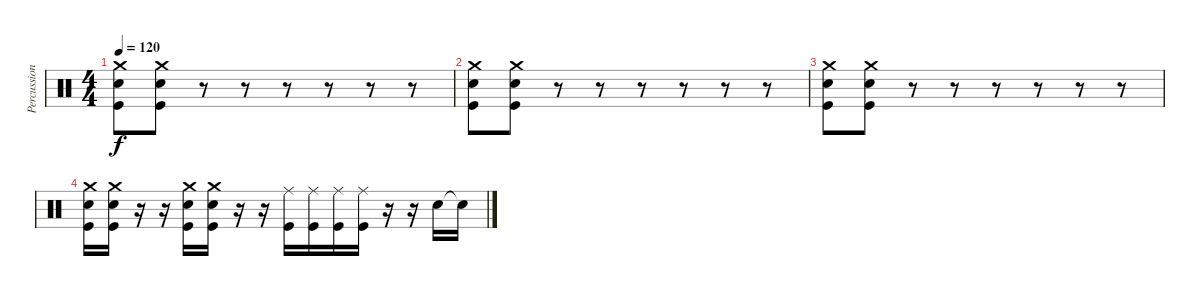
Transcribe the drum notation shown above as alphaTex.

\track ("Percussion" "Percussion") {instrument percussion}
\staff {score}
\articulation defaults
\ts (4 4)
\tempo 120
\clef neutral
\ks c
("Crash medium (hit)" "Electric Snare (hit)" "Kick (hit)").8{dy f} ("Crash medium (hit)" "Electric Snare (hit)" "Kick (hit)").8 r.8 r.8 r.8 r.8 r.8 r.8 |
("Crash medium (hit)" "Electric Snare (hit)" "Kick (hit)").8 ("Crash medium (hit)" "Electric Snare (hit)" "Kick (hit)").8 r.8 r.8 r.8 r.8 r.8 r.8 |
("Crash medium (hit)" "Electric Snare (hit)" "Kick (hit)").8 ("Crash medium (hit)" "Electric Snare (hit)" "Kick (hit)").8 r.8 r.8 r.8 r.8 r.8 r.8 |
("Crash medium (hit)" "Electric Snare (hit)" "Kick (hit)").16 ("Crash medium (hit)" "Electric Snare (hit)" "Kick (hit)").16 r.16 r.16 ("Crash medium (hit)" "Electric Snare (hit)" "Kick (hit)").16 ("Crash medium (hit)" "Electric Snare (hit)" "Kick (hit)").16 r.16 r.16 ("Ride (middle)" "Kick (hit)").16 ("Ride (middle)" "Kick (hit)").16 ("Ride (middle)" "Kick (hit)").16 ("Ride (middle)" "Kick (hit)").16 r.16 r.16 "Electric Snare (hit)".16 "Electric Snare (hit)"{t}.16
